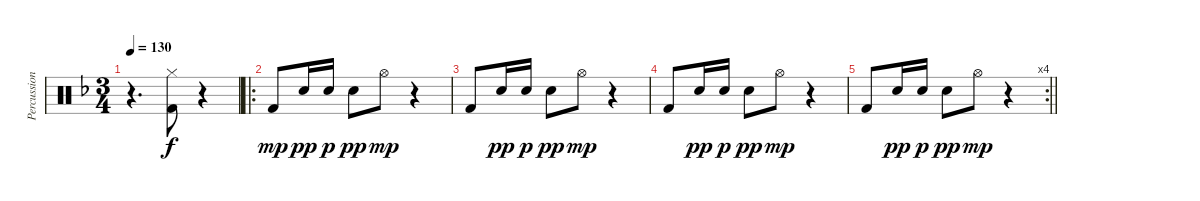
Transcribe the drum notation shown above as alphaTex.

\track ("Percussions" "Percussion") {instrument percussion}
\staff {score}
\articulation defaults
\ts (3 4)
\tempo 130
\clef neutral
\ks dminor
r.4{d dy f} ("Hi-Hat (closed)" "Kick (hit) 2").8 r.4 |
\ro "Kick (hit) 2".8{dy mp} "Snare (hit) 2".16{dy pp} "Snare (hit) 2".16{dy p} "Snare (hit) 2".8{dy pp} "Hi-Hat (open)".8{dy mp}
r.4 |
"Kick (hit) 2".8 "Snare (hit) 2".16{dy pp} "Snare (hit) 2".16{dy p} "Snare (hit) 2".8{dy pp} "Hi-Hat (open)".8{dy mp} r.4 |
"Kick (hit) 2".8 "Snare (hit) 2".16{dy pp} "Snare (hit) 2".16{dy p} "Snare (hit) 2".8{dy pp} "Hi-Hat (open)".8{dy mp} r.4 |
\rc 4
\barLineRight lightlight "Kick (hit) 2".8 "Snare (hit) 2".16{dy pp} "Snare (hit) 2".16{dy p} "Snare (hit) 2".8{dy pp} "Hi-Hat (open)".8{dy mp}
r.4
